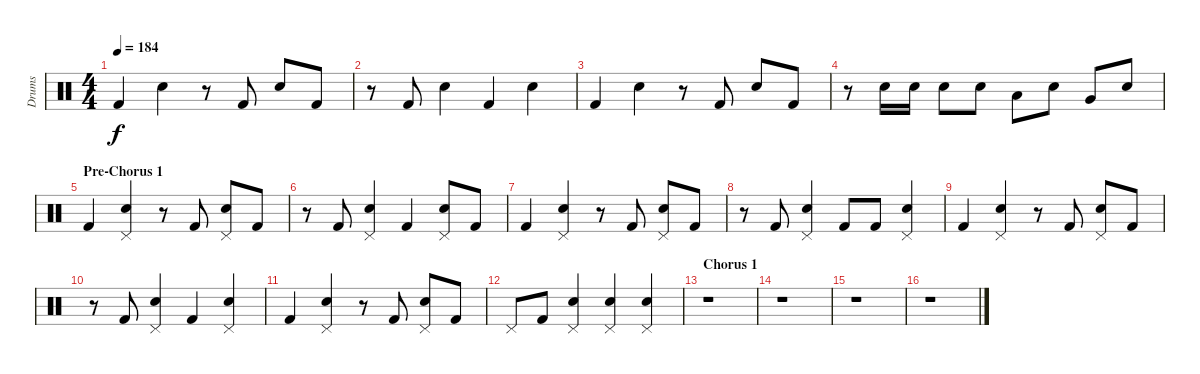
\track ("Drums" "Drums") {instrument percussion}
\staff {score}
\articulation defaults
\ts (4 4)
\tempo 184
\clef neutral
\ks c "Kick (hit) 2".4{dy f} "Snare (hit) 2".4
r.8 "Kick (hit) 2".8 "Snare (hit) 2".8 "Kick (hit) 2".8 |
r.8 "Kick (hit) 2".8 "Snare (hit) 2".4 "Kick (hit) 2".4 "Snare (hit) 2".4 |
"Kick (hit) 2".4 "Snare (hit) 2".4 r.8 "Kick (hit) 2".8 "Snare (hit) 2".8 "Kick (hit) 2".8 |
r.8 "Snare (hit) 2".16 "Snare (hit) 2".16 "Snare (hit) 2".8 "Snare (hit) 2".8 "Low Tom (hit)".8 "Snare (hit) 2".8 "Very Low Tom (hit)".8 "Snare (hit) 2".8 |
\section ("" "Pre-Chorus 1")
"Kick (hit) 2".4 ("Snare (hit) 2" "Pedal Hi-Hat (hit)").4 r.8 "Kick (hit) 2".8 ("Snare (hit) 2" "Pedal Hi-Hat (hit)").8 "Kick (hit) 2".8 |
r.8 "Kick (hit) 2".8 ("Snare (hit) 2" "Pedal Hi-Hat (hit)").4 "Kick (hit) 2".4 ("Snare (hit) 2" "Pedal Hi-Hat (hit)").8 "Kick (hit) 2".8 |
"Kick (hit) 2".4 ("Snare (hit) 2" "Pedal Hi-Hat (hit)").4 r.8 "Kick (hit) 2".8 ("Snare (hit) 2" "Pedal Hi-Hat (hit)").8 "Kick (hit) 2".8 |
r.8 "Kick (hit) 2".8 ("Snare (hit) 2" "Pedal Hi-Hat (hit)").4 "Kick (hit) 2".8 "Kick (hit) 2".8 ("Snare (hit) 2" "Pedal Hi-Hat (hit)").4 |
"Kick (hit) 2".4 ("Snare (hit) 2" "Pedal Hi-Hat (hit)").4 r.8 "Kick (hit) 2".8 ("Snare (hit) 2" "Pedal Hi-Hat (hit)").8 "Kick (hit) 2".8 |
r.8 "Kick (hit) 2".8 ("Snare (hit) 2" "Pedal Hi-Hat (hit)").4 "Kick (hit) 2".4 ("Snare (hit) 2" "Pedal Hi-Hat (hit)").4 |
"Kick (hit) 2".4 ("Snare (hit) 2" "Pedal Hi-Hat (hit)").4 r.8 "Kick (hit) 2".8 ("Snare (hit) 2" "Pedal Hi-Hat (hit)").8 "Kick (hit) 2".8 |
"Pedal Hi-Hat (hit)".8 "Kick (hit) 2".8 ("Snare (hit) 2" "Pedal Hi-Hat (hit)").4 ("Snare (hit) 2" "Pedal Hi-Hat (hit)").4 ("Snare (hit) 2" "Pedal Hi-Hat (hit)").4 |
\section ("" "Chorus 1")
r.1 |
r.1 |
r.1 |
r.1
